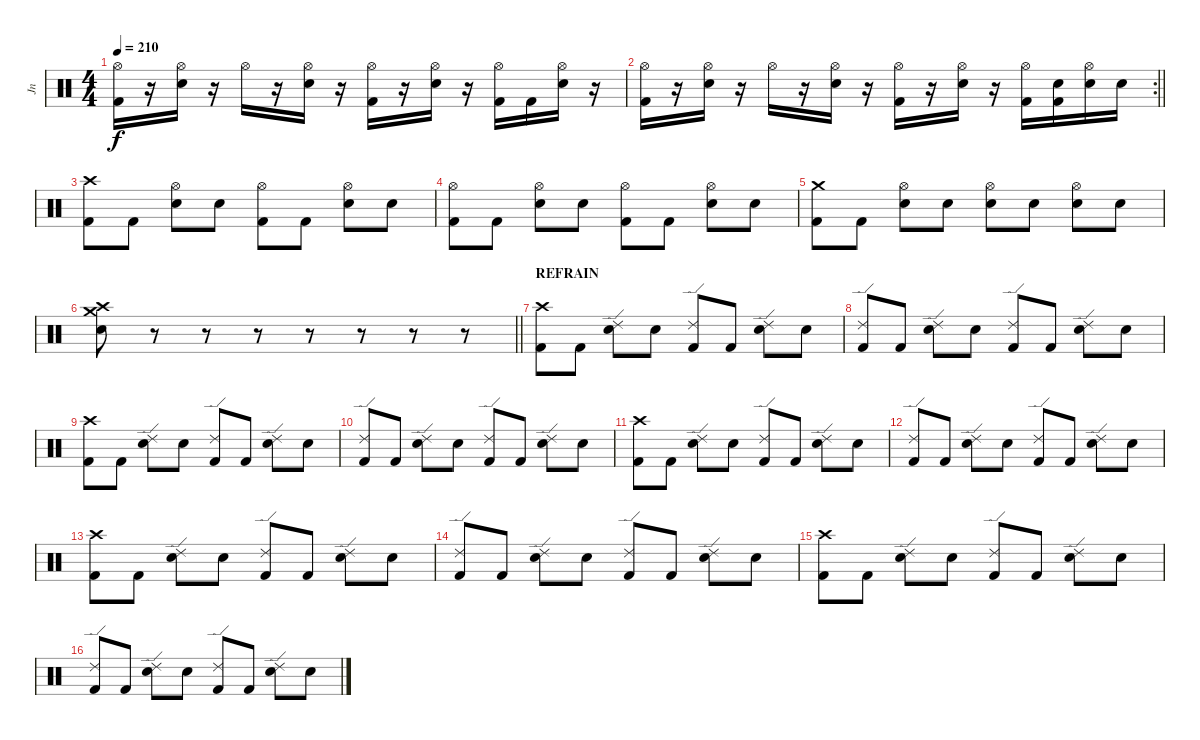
\track ("Jn" "Jn") {instrument percussion}
\staff {score}
\articulation defaults
\ts (4 4)
\tempo 210
\clef neutral
\ks c
("Hi-Hat (open)" "Kick (hit) 2").16{dy f} r.16 ("Hi-Hat (open)" "Electric Snare (hit)").16 r.16 "Hi-Hat (open)".16 r.16 ("Hi-Hat (open)" "Electric Snare (hit)").16 r.16 ("Hi-Hat (open)" "Kick (hit) 2").16 r.16 ("Hi-Hat (open)" "Electric Snare (hit)").16 r.16 ("Hi-Hat (open)" "Kick (hit) 2").16 "Kick (hit) 2".16 ("Hi-Hat (open)" "Electric Snare (hit)").16 r.16 |
\rc 2
\barLineRight lightlight
("Hi-Hat (open)" "Kick (hit) 2").16 r.16 ("Hi-Hat (open)" "Electric Snare (hit)").16 r.16 "Hi-Hat (open)".16 r.16 ("Hi-Hat (open)" "Electric Snare (hit)").16 r.16 ("Hi-Hat (open)" "Kick (hit) 2").16 r.16 ("Hi-Hat (open)" "Electric Snare (hit)").16 r.16 ("Hi-Hat (open)" "Kick (hit) 2").16 ("Electric Snare (hit)" "Kick (hit) 2").16 ("Hi-Hat (open)" "Electric Snare (hit)").16 "Electric Snare (hit)".16 |
\section ("" "")
("Crash high (hit)" "Kick (hit) 2").8 "Kick (hit) 2".8 ("Hi-Hat (open)" "Electric Snare (hit)").8 "Snare (hit)".8 ("Hi-Hat (open)" "Kick (hit) 2").8 "Kick (hit) 2".8 ("Hi-Hat (open)" "Electric Snare (hit)").8 "Snare (hit)".8 |
("Hi-Hat (open)" "Kick (hit) 2").8 "Kick (hit) 2".8 ("Hi-Hat (open)" "Electric Snare (hit)").8 "Snare (hit)".8 ("Hi-Hat (open)" "Kick (hit) 2").8 "Kick (hit) 2".8 ("Hi-Hat (open)" "Electric Snare (hit)").8 "Snare (hit)".8 |
("Crash medium (hit)" "Kick (hit) 2").8 "Kick (hit) 2".8 ("Hi-Hat (open)" "Electric Snare (hit)").8 "Electric Snare (hit)".8 ("Hi-Hat (open)" "Electric Snare (hit)").8 "Electric Snare (hit)".8 ("Hi-Hat (open)" "Electric Snare (hit)").8 "Electric Snare (hit)".8 |
\barLineRight lightlight
("Crash high (hit)" "Crash medium (hit)" "Electric Snare (hit)").8 r.8 r.8 r.8 r.8 r.8 r.8 r.8 |
\section ("" "REFRAIN")
("Crash high (hit)" "Kick (hit) 2").8 "Kick (hit) 2".8 ("Ride (edge) 2" "Electric Snare (hit)").8 "Snare (hit)".8 ("Ride (edge) 2" "Kick (hit) 2").8 "Kick (hit) 2".8 ("Ride (edge) 2" "Electric Snare (hit)").8 "Snare (hit)".8 |
("Ride (edge) 2" "Kick (hit) 2").8 "Kick (hit) 2".8 ("Ride (edge) 2" "Electric Snare (hit)").8 "Snare (hit)".8 ("Ride (edge) 2" "Kick (hit) 2").8 "Kick (hit) 2".8 ("Ride (edge) 2" "Electric Snare (hit)").8 "Snare (hit)".8 |
("Crash high (hit)" "Kick (hit) 2").8 "Kick (hit) 2".8 ("Ride (edge) 2" "Electric Snare (hit)").8 "Snare (hit)".8 ("Ride (edge) 2" "Kick (hit) 2").8 "Kick (hit) 2".8 ("Ride (edge) 2" "Electric Snare (hit)").8 "Snare (hit)".8 |
("Ride (edge) 2" "Kick (hit) 2").8 "Kick (hit) 2".8 ("Ride (edge) 2" "Electric Snare (hit)").8 "Snare (hit)".8 ("Ride (edge) 2" "Kick (hit) 2").8 "Kick (hit) 2".8 ("Ride (edge) 2" "Electric Snare (hit)").8 "Snare (hit)".8 |
("Crash high (hit)" "Kick (hit) 2").8 "Kick (hit) 2".8 ("Ride (edge) 2" "Electric Snare (hit)").8 "Snare (hit)".8 ("Ride (edge) 2" "Kick (hit) 2").8 "Kick (hit) 2".8 ("Ride (edge) 2" "Electric Snare (hit)").8 "Snare (hit)".8 |
("Ride (edge) 2" "Kick (hit) 2").8 "Kick (hit) 2".8 ("Ride (edge) 2" "Electric Snare (hit)").8 "Snare (hit)".8 ("Ride (edge) 2" "Kick (hit) 2").8 "Kick (hit) 2".8 ("Ride (edge) 2" "Electric Snare (hit)").8 "Snare (hit)".8 |
("Crash high (hit)" "Kick (hit) 2").8 "Kick (hit) 2".8 ("Ride (edge) 2" "Electric Snare (hit)").8 "Snare (hit)".8 ("Ride (edge) 2" "Kick (hit) 2").8 "Kick (hit) 2".8 ("Ride (edge) 2" "Electric Snare (hit)").8 "Snare (hit)".8 |
("Ride (edge) 2" "Kick (hit) 2").8 "Kick (hit) 2".8 ("Ride (edge) 2" "Electric Snare (hit)").8 "Snare (hit)".8 ("Ride (edge) 2" "Kick (hit) 2").8 "Kick (hit) 2".8 ("Ride (edge) 2" "Electric Snare (hit)").8 "Snare (hit)".8 |
("Crash high (hit)" "Kick (hit) 2").8 "Kick (hit) 2".8 ("Ride (edge) 2" "Electric Snare (hit)").8 "Snare (hit)".8 ("Ride (edge) 2" "Kick (hit) 2").8 "Kick (hit) 2".8 ("Ride (edge) 2" "Electric Snare (hit)").8 "Snare (hit)".8 |
("Ride (edge) 2" "Kick (hit) 2").8 "Kick (hit) 2".8 ("Ride (edge) 2" "Electric Snare (hit)").8 "Snare (hit)".8 ("Ride (edge) 2" "Kick (hit) 2").8 "Kick (hit) 2".8 ("Ride (edge) 2" "Electric Snare (hit)").8 "Snare (hit)".8
